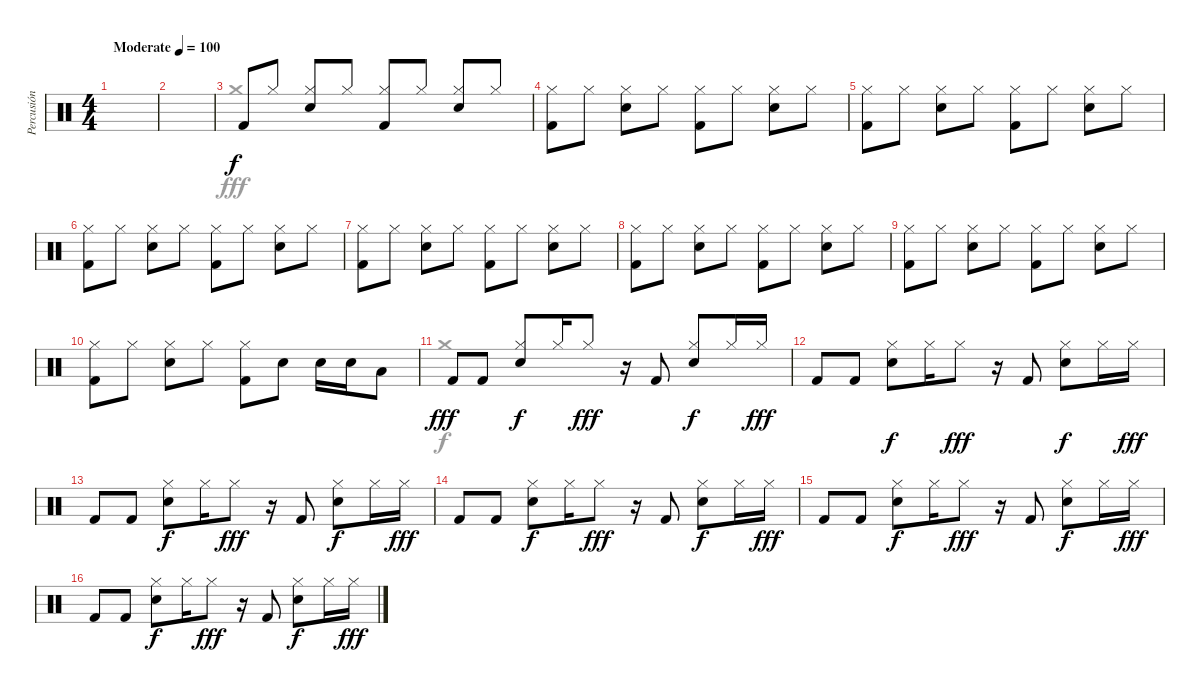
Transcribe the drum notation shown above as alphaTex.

\track ("Percusión" "Percusión") {instrument percussion}
\staff {score}
\articulation defaults
\voice
\ts (4 4)
\tempo (100 "Moderate")
\clef neutral
\ks c
|
|
"Kick (hit) 2".8 "Hi-Hat (closed)".8 ("Hi-Hat (closed)" "Electric Snare (hit)").8 "Hi-Hat (closed)".8 ("Hi-Hat (closed)" "Kick (hit) 2").8 "Hi-Hat (closed)".8 ("Hi-Hat (closed)" "Electric Snare (hit)").8 "Hi-Hat (closed)".8 |
("Hi-Hat (closed)" "Kick (hit) 2").8 "Hi-Hat (closed)".8 ("Hi-Hat (closed)" "Electric Snare (hit)").8 "Hi-Hat (closed)".8 ("Hi-Hat (closed)" "Kick (hit) 2").8 "Hi-Hat (closed)".8 ("Hi-Hat (closed)" "Electric Snare (hit)").8 "Hi-Hat (closed)".8 |
("Hi-Hat (closed)" "Kick (hit) 2").8 "Hi-Hat (closed)".8 ("Hi-Hat (closed)" "Electric Snare (hit)").8 "Hi-Hat (closed)".8 ("Hi-Hat (closed)" "Kick (hit) 2").8 "Hi-Hat (closed)".8 ("Hi-Hat (closed)" "Electric Snare (hit)").8 "Hi-Hat (closed)".8 |
("Hi-Hat (closed)" "Kick (hit) 2").8 "Hi-Hat (closed)".8 ("Hi-Hat (closed)" "Electric Snare (hit)").8 "Hi-Hat (closed)".8 ("Hi-Hat (closed)" "Kick (hit) 2").8 "Hi-Hat (closed)".8 ("Hi-Hat (closed)" "Electric Snare (hit)").8 "Hi-Hat (closed)".8 |
("Hi-Hat (closed)" "Kick (hit) 2").8 "Hi-Hat (closed)".8 ("Hi-Hat (closed)" "Electric Snare (hit)").8 "Hi-Hat (closed)".8 ("Hi-Hat (closed)" "Kick (hit) 2").8 "Hi-Hat (closed)".8 ("Hi-Hat (closed)" "Electric Snare (hit)").8 "Hi-Hat (closed)".8 |
("Hi-Hat (closed)" "Kick (hit) 2").8 "Hi-Hat (closed)".8 ("Hi-Hat (closed)" "Electric Snare (hit)").8 "Hi-Hat (closed)".8 ("Hi-Hat (closed)" "Kick (hit) 2").8 "Hi-Hat (closed)".8 ("Hi-Hat (closed)" "Electric Snare (hit)").8 "Hi-Hat (closed)".8 |
("Hi-Hat (closed)" "Kick (hit) 2").8 "Hi-Hat (closed)".8 ("Hi-Hat (closed)" "Electric Snare (hit)").8 "Hi-Hat (closed)".8 ("Hi-Hat (closed)" "Kick (hit) 2").8 "Hi-Hat (closed)".8 ("Hi-Hat (closed)" "Electric Snare (hit)").8 "Hi-Hat (closed)".8 |
("Hi-Hat (closed)" "Kick (hit) 2").8 "Hi-Hat (closed)".8 ("Hi-Hat (closed)" "Electric Snare (hit)").8 "Hi-Hat (closed)".8 ("Hi-Hat (closed)" "Kick (hit) 2").8 "Electric Snare (hit)".8 "Electric Snare (hit)".16 "Electric Snare (hit)".16 "Low Tom (hit)".8 |
"Kick (hit) 2".8{dy fff} "Kick (hit) 2".8 ("Hi-Hat (closed)" "Electric Snare (hit)").8{dy f} "Hi-Hat (closed)".16 "Hi-Hat (closed)".8{dy fff} r.16 "Kick (hit) 2".8 ("Hi-Hat (closed)" "Electric Snare (hit)").8{dy f} "Hi-Hat (closed)".16 "Hi-Hat (closed)".16{dy fff} |
"Kick (hit) 2".8 "Kick (hit) 2".8 ("Hi-Hat (closed)" "Electric Snare (hit)").8{dy f} "Hi-Hat (closed)".16 "Hi-Hat (closed)".8{dy fff} r.16 "Kick (hit) 2".8 ("Hi-Hat (closed)" "Electric Snare (hit)").8{dy f} "Hi-Hat (closed)".16 "Hi-Hat (closed)".16{dy fff} |
"Kick (hit) 2".8 "Kick (hit) 2".8 ("Hi-Hat (closed)" "Electric Snare (hit)").8{dy f} "Hi-Hat (closed)".16 "Hi-Hat (closed)".8{dy fff} r.16 "Kick (hit) 2".8 ("Hi-Hat (closed)" "Electric Snare (hit)").8{dy f} "Hi-Hat (closed)".16 "Hi-Hat (closed)".16{dy fff} |
"Kick (hit) 2".8 "Kick (hit) 2".8 ("Hi-Hat (closed)" "Electric Snare (hit)").8{dy f} "Hi-Hat (closed)".16 "Hi-Hat (closed)".8{dy fff} r.16 "Kick (hit) 2".8 ("Hi-Hat (closed)" "Electric Snare (hit)").8{dy f} "Hi-Hat (closed)".16 "Hi-Hat (closed)".16{dy fff} |
"Kick (hit) 2".8 "Kick (hit) 2".8 ("Hi-Hat (closed)" "Electric Snare (hit)").8{dy f} "Hi-Hat (closed)".16 "Hi-Hat (closed)".8{dy fff} r.16 "Kick (hit) 2".8 ("Hi-Hat (closed)" "Electric Snare (hit)").8{dy f} "Hi-Hat (closed)".16 "Hi-Hat (closed)".16{dy fff} |
"Kick (hit) 2".8 "Kick (hit) 2".8 ("Hi-Hat (closed)" "Electric Snare (hit)").8{dy f} "Hi-Hat (closed)".16 "Hi-Hat (closed)".8{dy fff} r.16 "Kick (hit) 2".8 ("Hi-Hat (closed)" "Electric Snare (hit)").8{dy f} "Hi-Hat (closed)".16 "Hi-Hat (closed)".16{dy fff}
\voice
\clef neutral
\ottava regular
\simile none
\ks c
|
|
"Crash medium (hit)".1 |
|
|
|
|
|
|
|
"Crash medium (hit)".1{dy f} |
|
|
|
|
